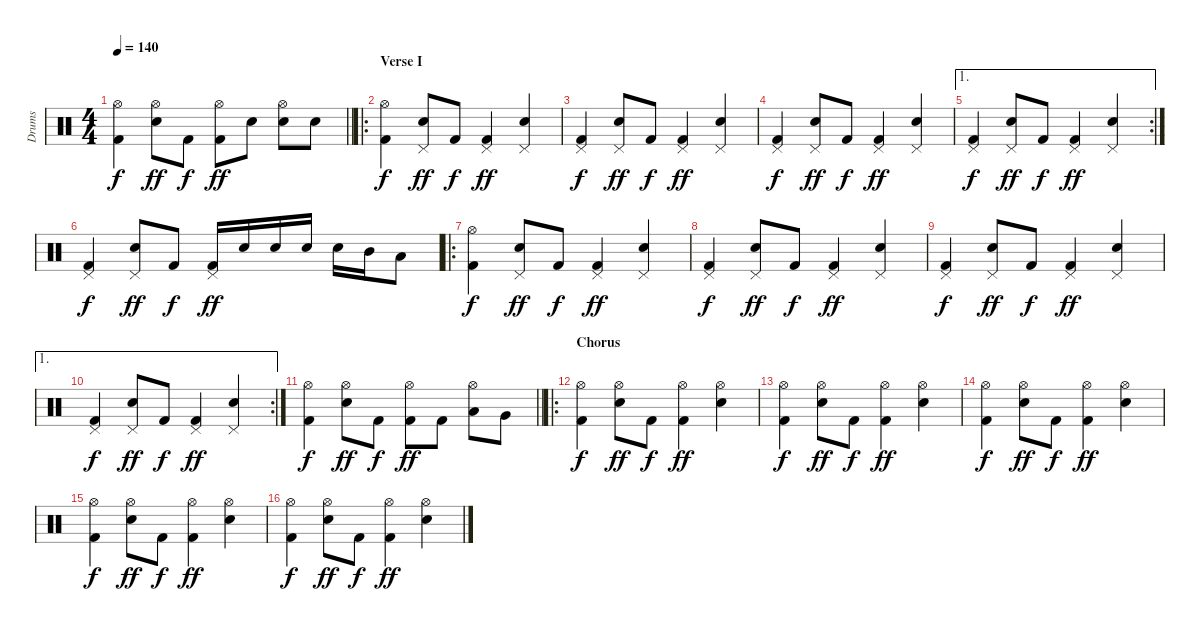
\track ("Drums" "Drums") {instrument percussion}
\staff {score}
\articulation defaults
\ts (4 4)
\tempo 140
\clef neutral
\barLineRight lightlight
\ks c
("Hi-Hat (open)" "Kick (hit) 2").4{dy f} ("Hi-Hat (open)" "Snare (hit) 2").8{dy ff} "Kick (hit) 2".8{dy f} ("Hi-Hat (open)" "Kick (hit) 2").8{dy ff} "Snare (hit) 2".8 ("Hi-Hat (open)" "Snare (hit) 2").8 "Snare (hit) 2".8 |
\ro
\section ("" "Verse I")
("Hi-Hat (open)" "Kick (hit) 2").4{dy f} ("Pedal Hi-Hat (hit)" "Snare (hit) 2").8{dy ff} "Kick (hit) 2".8{dy f} ("Pedal Hi-Hat (hit)" "Kick (hit) 2").4{dy ff} ("Pedal Hi-Hat (hit)" "Snare (hit) 2").4 |
("Pedal Hi-Hat (hit)" "Kick (hit) 2").4{dy f} ("Pedal Hi-Hat (hit)" "Snare (hit) 2").8{dy ff} "Kick (hit) 2".8{dy f} ("Pedal Hi-Hat (hit)" "Kick (hit) 2").4{dy ff} ("Pedal Hi-Hat (hit)" "Snare (hit) 2").4 |
("Pedal Hi-Hat (hit)" "Kick (hit) 2").4{dy f} ("Pedal Hi-Hat (hit)" "Snare (hit) 2").8{dy ff} "Kick (hit) 2".8{dy f} ("Pedal Hi-Hat (hit)" "Kick (hit) 2").4{dy ff} ("Pedal Hi-Hat (hit)" "Snare (hit) 2").4 |
\ae 1
\rc 2
("Pedal Hi-Hat (hit)" "Kick (hit) 2").4{dy f} ("Pedal Hi-Hat (hit)" "Snare (hit) 2").8{dy ff} "Kick (hit) 2".8{dy f} ("Pedal Hi-Hat (hit)" "Kick (hit) 2").4{dy ff} ("Pedal Hi-Hat (hit)" "Snare (hit) 2").4 |
("Pedal Hi-Hat (hit)" "Kick (hit) 2").4{dy f} ("Pedal Hi-Hat (hit)" "Snare (hit) 2").8{dy ff} "Kick (hit) 2".8{dy f} ("Pedal Hi-Hat (hit)" "Kick (hit) 2").16{dy ff} "Snare (hit) 2".16 "Snare (hit) 2".16 "Snare (hit) 2".16 "Snare (hit) 2".16 "Mid Tom (hit)".16 "Low Tom (hit)".8 |
\ro
("Hi-Hat (open)" "Kick (hit) 2").4{dy f} ("Pedal Hi-Hat (hit)" "Snare (hit) 2").8{dy ff} "Kick (hit) 2".8{dy f} ("Pedal Hi-Hat (hit)" "Kick (hit) 2").4{dy ff} ("Pedal Hi-Hat (hit)" "Snare (hit) 2").4 |
("Pedal Hi-Hat (hit)" "Kick (hit) 2").4{dy f} ("Pedal Hi-Hat (hit)" "Snare (hit) 2").8{dy ff} "Kick (hit) 2".8{dy f} ("Pedal Hi-Hat (hit)" "Kick (hit) 2").4{dy ff} ("Pedal Hi-Hat (hit)" "Snare (hit) 2").4 |
("Pedal Hi-Hat (hit)" "Kick (hit) 2").4{dy f} ("Pedal Hi-Hat (hit)" "Snare (hit) 2").8{dy ff} "Kick (hit) 2".8{dy f} ("Pedal Hi-Hat (hit)" "Kick (hit) 2").4{dy ff} ("Pedal Hi-Hat (hit)" "Snare (hit) 2").4 |
\ae 1
\rc 2
("Pedal Hi-Hat (hit)" "Kick (hit) 2").4{dy f} ("Pedal Hi-Hat (hit)" "Snare (hit) 2").8{dy ff} "Kick (hit) 2".8{dy f} ("Pedal Hi-Hat (hit)" "Kick (hit) 2").4{dy ff} ("Pedal Hi-Hat (hit)" "Snare (hit) 2").4 |
\barLineRight lightlight
("Hi-Hat (open)" "Kick (hit) 2").4{dy f} ("Hi-Hat (open)" "Snare (hit) 2").8{dy ff} "Kick (hit) 2".8{dy f} ("Hi-Hat (open)" "Kick (hit) 2").8{dy ff} "Kick (hit) 2".8 ("Hi-Hat (open)" "Low Tom (hit)").8 "Very Low Tom (hit)".8 |
\ro
\section ("" "Chorus")
("Hi-Hat (open)" "Kick (hit) 2").4{dy f} ("Hi-Hat (open)" "Snare (hit) 2").8{dy ff} "Kick (hit) 2".8{dy f} ("Hi-Hat (open)" "Kick (hit) 2").4{dy ff} ("Hi-Hat (open)" "Snare (hit) 2").4 |
("Hi-Hat (open)" "Kick (hit) 2").4{dy f} ("Hi-Hat (open)" "Snare (hit) 2").8{dy ff} "Kick (hit) 2".8{dy f} ("Hi-Hat (open)" "Kick (hit) 2").4{dy ff} ("Hi-Hat (open)" "Snare (hit) 2").4 |
("Hi-Hat (open)" "Kick (hit) 2").4{dy f} ("Hi-Hat (open)" "Snare (hit) 2").8{dy ff} "Kick (hit) 2".8{dy f} ("Hi-Hat (open)" "Kick (hit) 2").4{dy ff} ("Hi-Hat (open)" "Snare (hit) 2").4 |
("Hi-Hat (open)" "Kick (hit) 2").4{dy f} ("Hi-Hat (open)" "Snare (hit) 2").8{dy ff} "Kick (hit) 2".8{dy f} ("Hi-Hat (open)" "Kick (hit) 2").4{dy ff} ("Hi-Hat (open)" "Snare (hit) 2").4 |
("Hi-Hat (open)" "Kick (hit) 2").4{dy f} ("Hi-Hat (open)" "Snare (hit) 2").8{dy ff} "Kick (hit) 2".8{dy f} ("Hi-Hat (open)" "Kick (hit) 2").4{dy ff} ("Hi-Hat (open)" "Snare (hit) 2").4
